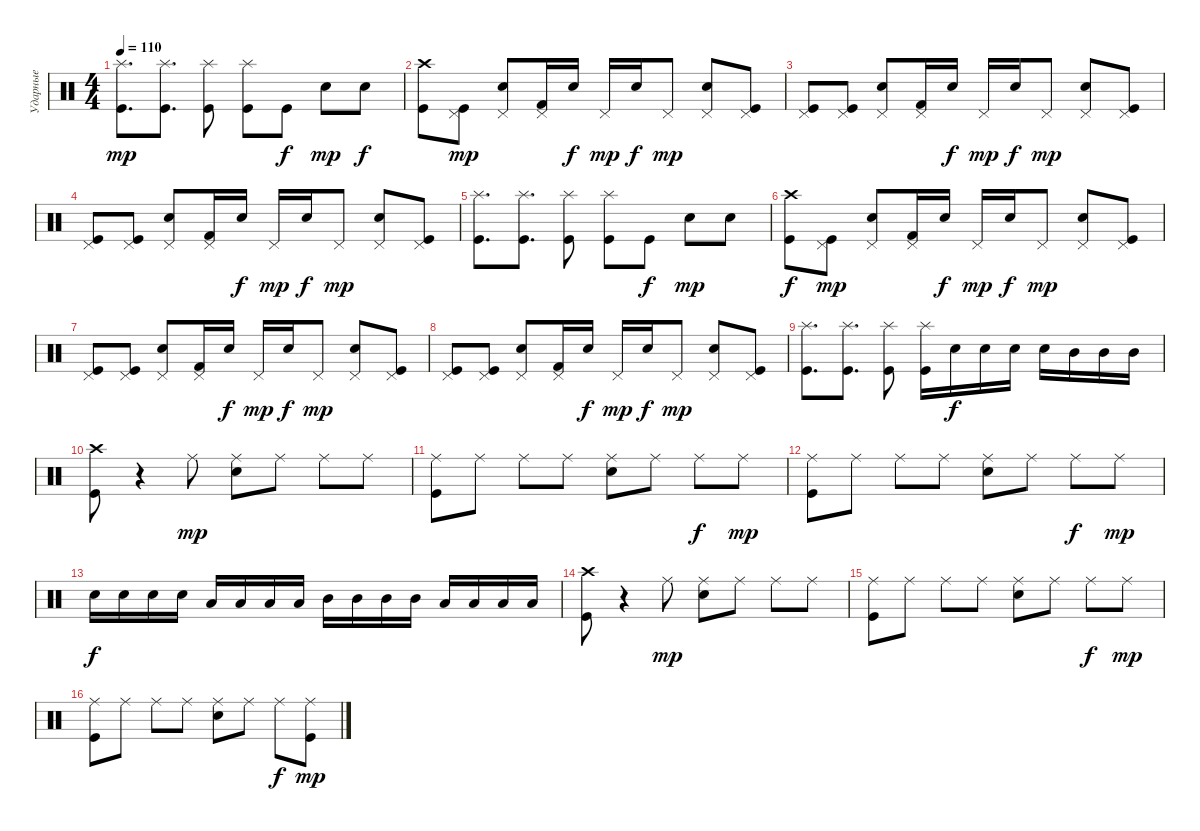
\track ("Ударные" "Ударные") {instrument percussion}
\staff {score}
\articulation defaults
\ts (4 4)
\tempo 110
\clef neutral
\ks c
("Splash (hit)" "Kick (hit)").8{d dy mp} ("Splash (hit)" "Kick (hit)").8{d} ("Splash (hit)" "Kick (hit)").8 ("Splash (hit)" "Kick (hit)").8 "Kick (hit)".8{dy f} "Snare (hit) 2".8{dy mp} "Snare (hit) 2".8{dy f} |
("Crash high (hit)" "Kick (hit)").8 ("Pedal Hi-Hat (hit)" "Kick (hit)").8{dy mp} ("Pedal Hi-Hat (hit)" "Snare (hit) 2").8 ("Pedal Hi-Hat (hit)" "Kick (hit) 2").16 "Snare (hit) 2".16{dy f} "Pedal Hi-Hat (hit)".16{dy mp} "Snare (hit) 2".16{dy f} "Pedal Hi-Hat (hit)".8{dy mp} ("Pedal Hi-Hat (hit)" "Snare (hit) 2").8 ("Pedal Hi-Hat (hit)" "Kick (hit)").8 |
("Pedal Hi-Hat (hit)" "Kick (hit)").8 ("Pedal Hi-Hat (hit)" "Kick (hit)").8 ("Pedal Hi-Hat (hit)" "Snare (hit) 2").8 ("Pedal Hi-Hat (hit)" "Kick (hit) 2").16 "Snare (hit) 2".16{dy f} "Pedal Hi-Hat (hit)".16{dy mp} "Snare (hit) 2".16{dy f} "Pedal Hi-Hat (hit)".8{dy mp} ("Pedal Hi-Hat (hit)" "Snare (hit) 2").8 ("Pedal Hi-Hat (hit)" "Kick (hit)").8 |
("Pedal Hi-Hat (hit)" "Kick (hit)").8 ("Pedal Hi-Hat (hit)" "Kick (hit)").8 ("Pedal Hi-Hat (hit)" "Snare (hit) 2").8 ("Pedal Hi-Hat (hit)" "Kick (hit) 2").16 "Snare (hit) 2".16{dy f} "Pedal Hi-Hat (hit)".16{dy mp} "Snare (hit) 2".16{dy f} "Pedal Hi-Hat (hit)".8{dy mp} ("Pedal Hi-Hat (hit)" "Snare (hit) 2").8 ("Pedal Hi-Hat (hit)" "Kick (hit)").8 |
("Splash (hit)" "Kick (hit)").8{d} ("Splash (hit)" "Kick (hit)").8{d} ("Splash (hit)" "Kick (hit)").8 ("Splash (hit)" "Kick (hit)").8 "Kick (hit)".8{dy f} "Snare (hit) 2".8{dy mp} "Snare (hit) 2".8 |
("Crash high (hit)" "Kick (hit)").8{dy f} ("Pedal Hi-Hat (hit)" "Kick (hit)").8{dy mp} ("Pedal Hi-Hat (hit)" "Snare (hit) 2").8 ("Pedal Hi-Hat (hit)" "Kick (hit) 2").16 "Snare (hit) 2".16{dy f} "Pedal Hi-Hat (hit)".16{dy mp} "Snare (hit) 2".16{dy f} "Pedal Hi-Hat (hit)".8{dy mp} ("Pedal Hi-Hat (hit)" "Snare (hit) 2").8 ("Pedal Hi-Hat (hit)" "Kick (hit)").8 |
("Pedal Hi-Hat (hit)" "Kick (hit)").8 ("Pedal Hi-Hat (hit)" "Kick (hit)").8 ("Pedal Hi-Hat (hit)" "Snare (hit) 2").8 ("Pedal Hi-Hat (hit)" "Kick (hit) 2").16 "Snare (hit) 2".16{dy f} "Pedal Hi-Hat (hit)".16{dy mp} "Snare (hit) 2".16{dy f} "Pedal Hi-Hat (hit)".8{dy mp} ("Pedal Hi-Hat (hit)" "Snare (hit) 2").8 ("Pedal Hi-Hat (hit)" "Kick (hit)").8 |
("Pedal Hi-Hat (hit)" "Kick (hit)").8 ("Pedal Hi-Hat (hit)" "Kick (hit)").8 ("Pedal Hi-Hat (hit)" "Snare (hit) 2").8 ("Pedal Hi-Hat (hit)" "Kick (hit) 2").16 "Snare (hit) 2".16{dy f} "Pedal Hi-Hat (hit)".16{dy mp} "Snare (hit) 2".16{dy f} "Pedal Hi-Hat (hit)".8{dy mp} ("Pedal Hi-Hat (hit)" "Snare (hit) 2").8 ("Pedal Hi-Hat (hit)" "Kick (hit)").8 |
("Splash (hit)" "Kick (hit)").8{d} ("Splash (hit)" "Kick (hit)").8{d} ("Splash (hit)" "Kick (hit)").8 ("Splash (hit)" "Kick (hit)").16 "Snare (hit) 2".16{dy f} "Snare (hit) 2".16 "Snare (hit) 2".16 "Snare (hit) 2".16 "Mid Tom (hit)".16 "Mid Tom (hit)".16 "Mid Tom (hit)".16 |
("Crash high (hit)" "Kick (hit)").8 r.4 "Ride (middle)".8{dy mp} ("Ride (middle)" "Snare (hit) 2").8 "Ride (middle)".8 "Ride (middle)".8 "Ride (middle)".8 |
("Ride (middle)" "Kick (hit)").8 "Ride (middle)".8 "Ride (middle)".8 "Ride (middle)".8 ("Ride (middle)" "Snare (hit) 2").8 "Ride (middle)".8 "Ride (middle)".8{dy f} "Ride (middle)".8{dy mp} |
("Ride (middle)" "Kick (hit)").8 "Ride (middle)".8 "Ride (middle)".8 "Ride (middle)".8 ("Ride (middle)" "Snare (hit) 2").8 "Ride (middle)".8 "Ride (middle)".8{dy f} "Ride (middle)".8{dy mp} |
"Snare (hit) 2".16{dy f} "Snare (hit) 2".16 "Snare (hit) 2".16 "Snare (hit) 2".16 "Low Tom (hit)".16 "Low Tom (hit)".16 "Low Tom (hit)".16 "Low Tom (hit)".16 "Mid Tom (hit)".16 "Mid Tom (hit)".16 "Mid Tom (hit)".16 "Mid Tom (hit)".16 "Low Tom (hit)".16 "Low Tom (hit)".16 "Low Tom (hit)".16 "Low Tom (hit)".16 |
("Crash high (hit)" "Kick (hit)").8 r.4 "Ride (middle)".8{dy mp} ("Ride (middle)" "Snare (hit) 2").8 "Ride (middle)".8 "Ride (middle)".8 "Ride (middle)".8 |
("Ride (middle)" "Kick (hit)").8 "Ride (middle)".8 "Ride (middle)".8 "Ride (middle)".8 ("Ride (middle)" "Snare (hit) 2").8 "Ride (middle)".8 "Ride (middle)".8{dy f} "Ride (middle)".8{dy mp} |
("Ride (middle)" "Kick (hit)").8 "Ride (middle)".8 "Ride (middle)".8 "Ride (middle)".8 ("Ride (middle)" "Snare (hit) 2").8 "Ride (middle)".8 "Ride (middle)".8{dy f} ("Ride (middle)" "Kick (hit)").8{dy mp}
